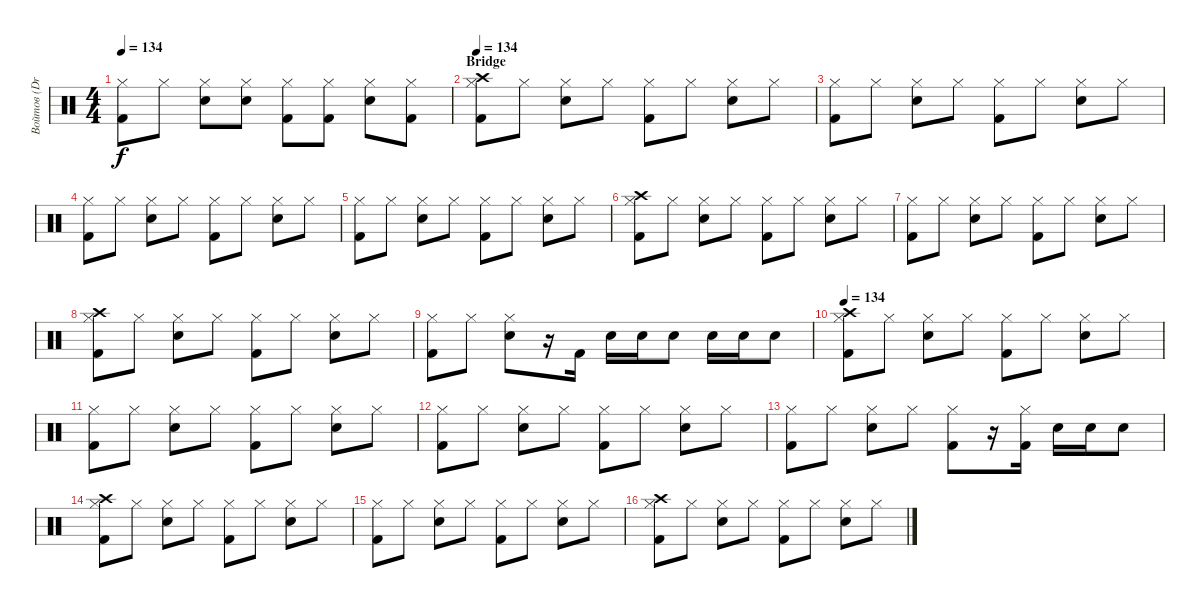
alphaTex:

\track ("Войтов (Drums)" "Войтов (Dr") {instrument percussion}
\staff {score}
\articulation defaults
\ts (4 4)
\tempo 134
\clef neutral
\ks c
("Hi-Hat (closed)" "Kick (hit) 2").8{dy f} "Hi-Hat (closed)".8 ("Hi-Hat (closed)" "Electric Snare (hit)").8 ("Hi-Hat (closed)" "Electric Snare (hit)").8 ("Hi-Hat (closed)" "Kick (hit) 2").8 ("Hi-Hat (closed)" "Kick (hit) 2").8 ("Hi-Hat (closed)" "Electric Snare (hit)").8 ("Hi-Hat (closed)" "Kick (hit) 2").8 |
\section ("" "Bridge")
\tempo 134
("Hi-Hat (closed)" "Kick (hit) 2" "Crash high (hit)").8 "Hi-Hat (closed)".8 ("Hi-Hat (closed)" "Electric Snare (hit)").8 "Hi-Hat (closed)".8 ("Hi-Hat (closed)" "Kick (hit) 2").8 "Hi-Hat (closed)".8 ("Hi-Hat (closed)" "Electric Snare (hit)").8 "Hi-Hat (closed)".8 |
("Hi-Hat (closed)" "Kick (hit) 2").8 "Hi-Hat (closed)".8 ("Hi-Hat (closed)" "Electric Snare (hit)").8 "Hi-Hat (closed)".8 ("Hi-Hat (closed)" "Kick (hit) 2").8 "Hi-Hat (closed)".8 ("Hi-Hat (closed)" "Electric Snare (hit)").8 "Hi-Hat (closed)".8 |
("Hi-Hat (closed)" "Kick (hit) 2").8 "Hi-Hat (closed)".8 ("Hi-Hat (closed)" "Electric Snare (hit)").8 "Hi-Hat (closed)".8 ("Hi-Hat (closed)" "Kick (hit) 2").8 "Hi-Hat (closed)".8 ("Hi-Hat (closed)" "Electric Snare (hit)").8 "Hi-Hat (closed)".8 |
("Hi-Hat (closed)" "Kick (hit) 2").8 "Hi-Hat (closed)".8 ("Hi-Hat (closed)" "Electric Snare (hit)").8 "Hi-Hat (closed)".8 ("Hi-Hat (closed)" "Kick (hit) 2").8 "Hi-Hat (closed)".8 ("Hi-Hat (closed)" "Electric Snare (hit)").8 "Hi-Hat (closed)".8 |
("Hi-Hat (closed)" "Kick (hit) 2" "Crash high (hit)").8 "Hi-Hat (closed)".8 ("Hi-Hat (closed)" "Electric Snare (hit)").8 "Hi-Hat (closed)".8 ("Hi-Hat (closed)" "Kick (hit) 2").8 "Hi-Hat (closed)".8 ("Hi-Hat (closed)" "Electric Snare (hit)").8 "Hi-Hat (closed)".8 |
("Hi-Hat (closed)" "Kick (hit) 2").8 "Hi-Hat (closed)".8 ("Hi-Hat (closed)" "Electric Snare (hit)").8 "Hi-Hat (closed)".8 ("Hi-Hat (closed)" "Kick (hit) 2").8 "Hi-Hat (closed)".8 ("Hi-Hat (closed)" "Electric Snare (hit)").8 "Hi-Hat (closed)".8 |
("Hi-Hat (closed)" "Kick (hit) 2" "Crash high (hit)").8 "Hi-Hat (closed)".8 ("Hi-Hat (closed)" "Electric Snare (hit)").8 "Hi-Hat (closed)".8 ("Hi-Hat (closed)" "Kick (hit) 2").8 "Hi-Hat (closed)".8 ("Hi-Hat (closed)" "Electric Snare (hit)").8 "Hi-Hat (closed)".8 |
("Hi-Hat (closed)" "Kick (hit) 2").8 "Hi-Hat (closed)".8 ("Hi-Hat (closed)" "Electric Snare (hit)").8 r.16 "Kick (hit) 2".16 "Electric Snare (hit)".16 "Electric Snare (hit)".16 "Electric Snare (hit)".8 "Electric Snare (hit)".16 "Electric Snare (hit)".16 "Electric Snare (hit)".8 |
\tempo 134
("Hi-Hat (closed)" "Kick (hit) 2" "Crash high (hit)").8 "Hi-Hat (closed)".8 ("Hi-Hat (closed)" "Electric Snare (hit)").8 "Hi-Hat (closed)".8 ("Hi-Hat (closed)" "Kick (hit) 2").8 "Hi-Hat (closed)".8 ("Hi-Hat (closed)" "Electric Snare (hit)").8 "Hi-Hat (closed)".8 |
("Hi-Hat (closed)" "Kick (hit) 2").8 "Hi-Hat (closed)".8 ("Hi-Hat (closed)" "Electric Snare (hit)").8 "Hi-Hat (closed)".8 ("Hi-Hat (closed)" "Kick (hit) 2").8 "Hi-Hat (closed)".8 ("Hi-Hat (closed)" "Electric Snare (hit)").8 "Hi-Hat (closed)".8 |
("Hi-Hat (closed)" "Kick (hit) 2").8 "Hi-Hat (closed)".8 ("Hi-Hat (closed)" "Electric Snare (hit)").8 "Hi-Hat (closed)".8 ("Hi-Hat (closed)" "Kick (hit) 2").8 "Hi-Hat (closed)".8 ("Hi-Hat (closed)" "Electric Snare (hit)").8 "Hi-Hat (closed)".8 |
("Hi-Hat (closed)" "Kick (hit) 2").8 "Hi-Hat (closed)".8 ("Hi-Hat (closed)" "Electric Snare (hit)").8 "Hi-Hat (closed)".8 ("Hi-Hat (closed)" "Kick (hit) 2").8 r.16 ("Hi-Hat (closed)" "Kick (hit) 2").16 "Electric Snare (hit)".16 "Electric Snare (hit)".16 "Electric Snare (hit)".8 |
("Hi-Hat (closed)" "Kick (hit) 2" "Crash high (hit)").8 "Hi-Hat (closed)".8 ("Hi-Hat (closed)" "Electric Snare (hit)").8 "Hi-Hat (closed)".8 ("Hi-Hat (closed)" "Kick (hit) 2").8 "Hi-Hat (closed)".8 ("Hi-Hat (closed)" "Electric Snare (hit)").8 "Hi-Hat (closed)".8 |
("Hi-Hat (closed)" "Kick (hit) 2").8 "Hi-Hat (closed)".8 ("Hi-Hat (closed)" "Electric Snare (hit)").8 "Hi-Hat (closed)".8 ("Hi-Hat (closed)" "Kick (hit) 2").8 "Hi-Hat (closed)".8 ("Hi-Hat (closed)" "Electric Snare (hit)").8 "Hi-Hat (closed)".8 |
("Hi-Hat (closed)" "Kick (hit) 2" "Crash high (hit)").8 "Hi-Hat (closed)".8 ("Hi-Hat (closed)" "Electric Snare (hit)").8 "Hi-Hat (closed)".8 ("Hi-Hat (closed)" "Kick (hit) 2").8 "Hi-Hat (closed)".8 ("Hi-Hat (closed)" "Electric Snare (hit)").8 "Hi-Hat (closed)".8
